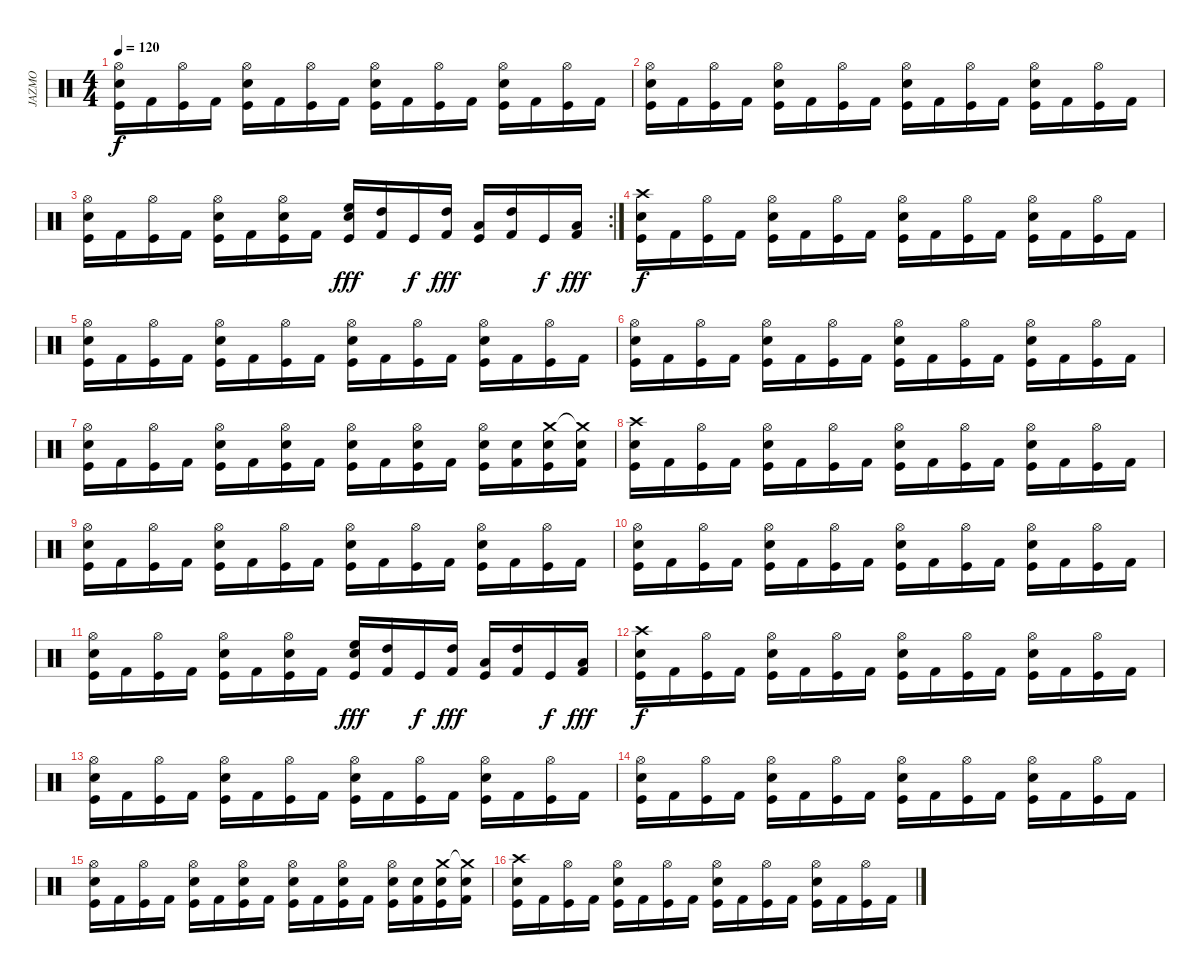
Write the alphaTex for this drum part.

\track ("JAZMO" "JAZMO") {instrument percussion}
\staff {score}
\articulation defaults
\ts (4 4)
\tempo 120
\clef neutral
\ks c
("Hi-Hat (open)" "Electric Snare (hit)" "Kick (hit)").16{dy f} "Kick (hit) 2".16 ("Hi-Hat (open)" "Kick (hit)").16 "Kick (hit) 2".16 ("Hi-Hat (open)" "Electric Snare (hit)" "Kick (hit)").16 "Kick (hit) 2".16 ("Hi-Hat (open)" "Kick (hit)").16 "Kick (hit) 2".16 ("Hi-Hat (open)" "Electric Snare (hit)" "Kick (hit)").16 "Kick (hit) 2".16 ("Hi-Hat (open)" "Kick (hit)").16 "Kick (hit) 2".16 ("Hi-Hat (open)" "Electric Snare (hit)" "Kick (hit)").16 "Kick (hit) 2".16 ("Hi-Hat (open)" "Kick (hit)").16 "Kick (hit) 2".16 |
("Hi-Hat (open)" "Electric Snare (hit)" "Kick (hit)").16 "Kick (hit) 2".16 ("Hi-Hat (open)" "Kick (hit)").16 "Kick (hit) 2".16 ("Hi-Hat (open)" "Electric Snare (hit)" "Kick (hit)").16 "Kick (hit) 2".16 ("Hi-Hat (open)" "Kick (hit)").16 "Kick (hit) 2".16 ("Hi-Hat (open)" "Electric Snare (hit)" "Kick (hit)").16 "Kick (hit) 2".16 ("Hi-Hat (open)" "Kick (hit)").16 "Kick (hit) 2".16 ("Hi-Hat (open)" "Electric Snare (hit)" "Kick (hit)").16 "Kick (hit) 2".16 ("Hi-Hat (open)" "Kick (hit)").16 "Kick (hit) 2".16 |
\rc 2
("Hi-Hat (open)" "Electric Snare (hit)" "Kick (hit)").16 "Kick (hit) 2".16 ("Hi-Hat (open)" "Kick (hit)").16 "Kick (hit) 2".16 ("Hi-Hat (open)" "Electric Snare (hit)" "Kick (hit)").16 "Kick (hit) 2".16 ("Hi-Hat (open)" "Electric Snare (hit)" "Kick (hit)").16 "Kick (hit) 2".16 ("High Floor Tom (hit)" "Electric Snare (hit)" "Kick (hit)").16{dy fff} ("High Tom (hit)" "Kick (hit) 2").16 "Kick (hit)".16{dy f} ("High Tom (hit)" "Kick (hit) 2").16{dy fff} ("Low Tom (hit)" "Kick (hit)").16 ("High Tom (hit)" "Kick (hit) 2").16 "Kick (hit)".16{dy f} ("Low Floor Tom (hit)" "Kick (hit) 2").16{dy fff} |
("Crash high (hit)" "Electric Snare (hit)" "Kick (hit)").16{dy f} "Kick (hit) 2".16 ("Hi-Hat (open)" "Kick (hit)").16 "Kick (hit) 2".16 ("Hi-Hat (open)" "Electric Snare (hit)" "Kick (hit)").16 "Kick (hit) 2".16 ("Hi-Hat (open)" "Kick (hit)").16 "Kick (hit) 2".16 ("Hi-Hat (open)" "Electric Snare (hit)" "Kick (hit)").16 "Kick (hit) 2".16 ("Hi-Hat (open)" "Kick (hit)").16 "Kick (hit) 2".16 ("Hi-Hat (open)" "Electric Snare (hit)" "Kick (hit)").16 "Kick (hit) 2".16 ("Hi-Hat (open)" "Kick (hit)").16 "Kick (hit) 2".16 |
("Hi-Hat (open)" "Electric Snare (hit)" "Kick (hit)").16 "Kick (hit) 2".16 ("Hi-Hat (open)" "Kick (hit)").16 "Kick (hit) 2".16 ("Hi-Hat (open)" "Electric Snare (hit)" "Kick (hit)").16 "Kick (hit) 2".16 ("Hi-Hat (open)" "Kick (hit)").16 "Kick (hit) 2".16 ("Hi-Hat (open)" "Electric Snare (hit)" "Kick (hit)").16 "Kick (hit) 2".16 ("Hi-Hat (open)" "Kick (hit)").16 "Kick (hit) 2".16 ("Hi-Hat (open)" "Electric Snare (hit)" "Kick (hit)").16 "Kick (hit) 2".16 ("Hi-Hat (open)" "Kick (hit)").16 "Kick (hit) 2".16 |
("Hi-Hat (open)" "Electric Snare (hit)" "Kick (hit)").16 "Kick (hit) 2".16 ("Hi-Hat (open)" "Kick (hit)").16 "Kick (hit) 2".16 ("Hi-Hat (open)" "Electric Snare (hit)" "Kick (hit)").16 "Kick (hit) 2".16 ("Hi-Hat (open)" "Kick (hit)").16 "Kick (hit) 2".16 ("Hi-Hat (open)" "Electric Snare (hit)" "Kick (hit)").16 "Kick (hit) 2".16 ("Hi-Hat (open)" "Kick (hit)").16 "Kick (hit) 2".16 ("Hi-Hat (open)" "Electric Snare (hit)" "Kick (hit)").16 "Kick (hit) 2".16 ("Hi-Hat (open)" "Kick (hit)").16 "Kick (hit) 2".16 |
("Hi-Hat (open)" "Electric Snare (hit)" "Kick (hit)").16 "Kick (hit) 2".16 ("Hi-Hat (open)" "Kick (hit)").16 "Kick (hit) 2".16 ("Hi-Hat (open)" "Electric Snare (hit)" "Kick (hit)").16 "Kick (hit) 2".16 ("Hi-Hat (open)" "Electric Snare (hit)" "Kick (hit)").16 "Kick (hit) 2".16 ("Hi-Hat (open)" "Electric Snare (hit)" "Kick (hit)").16 "Kick (hit) 2".16 ("Hi-Hat (open)" "Electric Snare (hit)" "Kick (hit)").16 "Kick (hit) 2".16 ("Hi-Hat (open)" "Electric Snare (hit)" "Kick (hit)").16 ("Electric Snare (hit)" "Kick (hit) 2").16 ("Crash medium (hit)" "Electric Snare (hit)" "Kick (hit)").16 ("Crash medium (hit)"{t} "Electric Snare (hit)" "Kick (hit) 2").16 |
("Crash high (hit)" "Electric Snare (hit)" "Kick (hit)").16 "Kick (hit) 2".16 ("Hi-Hat (open)" "Kick (hit)").16 "Kick (hit) 2".16 ("Hi-Hat (open)" "Electric Snare (hit)" "Kick (hit)").16 "Kick (hit) 2".16 ("Hi-Hat (open)" "Kick (hit)").16 "Kick (hit) 2".16 ("Hi-Hat (open)" "Electric Snare (hit)" "Kick (hit)").16 "Kick (hit) 2".16 ("Hi-Hat (open)" "Kick (hit)").16 "Kick (hit) 2".16 ("Hi-Hat (open)" "Electric Snare (hit)" "Kick (hit)").16 "Kick (hit) 2".16 ("Hi-Hat (open)" "Kick (hit)").16 "Kick (hit) 2".16 |
("Hi-Hat (open)" "Electric Snare (hit)" "Kick (hit)").16 "Kick (hit) 2".16 ("Hi-Hat (open)" "Kick (hit)").16 "Kick (hit) 2".16 ("Hi-Hat (open)" "Electric Snare (hit)" "Kick (hit)").16 "Kick (hit) 2".16 ("Hi-Hat (open)" "Kick (hit)").16 "Kick (hit) 2".16 ("Hi-Hat (open)" "Electric Snare (hit)" "Kick (hit)").16 "Kick (hit) 2".16 ("Hi-Hat (open)" "Kick (hit)").16 "Kick (hit) 2".16 ("Hi-Hat (open)" "Electric Snare (hit)" "Kick (hit)").16 "Kick (hit) 2".16 ("Hi-Hat (open)" "Kick (hit)").16 "Kick (hit) 2".16 |
("Hi-Hat (open)" "Electric Snare (hit)" "Kick (hit)").16 "Kick (hit) 2".16 ("Hi-Hat (open)" "Kick (hit)").16 "Kick (hit) 2".16 ("Hi-Hat (open)" "Electric Snare (hit)" "Kick (hit)").16 "Kick (hit) 2".16 ("Hi-Hat (open)" "Kick (hit)").16 "Kick (hit) 2".16 ("Hi-Hat (open)" "Electric Snare (hit)" "Kick (hit)").16 "Kick (hit) 2".16 ("Hi-Hat (open)" "Kick (hit)").16 "Kick (hit) 2".16 ("Hi-Hat (open)" "Electric Snare (hit)" "Kick (hit)").16 "Kick (hit) 2".16 ("Hi-Hat (open)" "Kick (hit)").16 "Kick (hit) 2".16 |
("Hi-Hat (open)" "Electric Snare (hit)" "Kick (hit)").16 "Kick (hit) 2".16 ("Hi-Hat (open)" "Kick (hit)").16 "Kick (hit) 2".16 ("Hi-Hat (open)" "Electric Snare (hit)" "Kick (hit)").16 "Kick (hit) 2".16 ("Hi-Hat (open)" "Electric Snare (hit)" "Kick (hit)").16 "Kick (hit) 2".16 ("High Floor Tom (hit)" "Electric Snare (hit)" "Kick (hit)").16{dy fff} ("High Tom (hit)" "Kick (hit) 2").16 "Kick (hit)".16{dy f} ("High Tom (hit)" "Kick (hit) 2").16{dy fff} ("Low Tom (hit)" "Kick (hit)").16 ("High Tom (hit)" "Kick (hit) 2").16 "Kick (hit)".16{dy f} ("Low Floor Tom (hit)" "Kick (hit) 2").16{dy fff} |
("Crash high (hit)" "Electric Snare (hit)" "Kick (hit)").16{dy f} "Kick (hit) 2".16 ("Hi-Hat (open)" "Kick (hit)").16 "Kick (hit) 2".16 ("Hi-Hat (open)" "Electric Snare (hit)" "Kick (hit)").16 "Kick (hit) 2".16 ("Hi-Hat (open)" "Kick (hit)").16 "Kick (hit) 2".16 ("Hi-Hat (open)" "Electric Snare (hit)" "Kick (hit)").16 "Kick (hit) 2".16 ("Hi-Hat (open)" "Kick (hit)").16 "Kick (hit) 2".16 ("Hi-Hat (open)" "Electric Snare (hit)" "Kick (hit)").16 "Kick (hit) 2".16 ("Hi-Hat (open)" "Kick (hit)").16 "Kick (hit) 2".16 |
("Hi-Hat (open)" "Electric Snare (hit)" "Kick (hit)").16 "Kick (hit) 2".16 ("Hi-Hat (open)" "Kick (hit)").16 "Kick (hit) 2".16 ("Hi-Hat (open)" "Electric Snare (hit)" "Kick (hit)").16 "Kick (hit) 2".16 ("Hi-Hat (open)" "Kick (hit)").16 "Kick (hit) 2".16 ("Hi-Hat (open)" "Electric Snare (hit)" "Kick (hit)").16 "Kick (hit) 2".16 ("Hi-Hat (open)" "Kick (hit)").16 "Kick (hit) 2".16 ("Hi-Hat (open)" "Electric Snare (hit)" "Kick (hit)").16 "Kick (hit) 2".16 ("Hi-Hat (open)" "Kick (hit)").16 "Kick (hit) 2".16 |
("Hi-Hat (open)" "Electric Snare (hit)" "Kick (hit)").16 "Kick (hit) 2".16 ("Hi-Hat (open)" "Kick (hit)").16 "Kick (hit) 2".16 ("Hi-Hat (open)" "Electric Snare (hit)" "Kick (hit)").16 "Kick (hit) 2".16 ("Hi-Hat (open)" "Kick (hit)").16 "Kick (hit) 2".16 ("Hi-Hat (open)" "Electric Snare (hit)" "Kick (hit)").16 "Kick (hit) 2".16 ("Hi-Hat (open)" "Kick (hit)").16 "Kick (hit) 2".16 ("Hi-Hat (open)" "Electric Snare (hit)" "Kick (hit)").16 "Kick (hit) 2".16 ("Hi-Hat (open)" "Kick (hit)").16 "Kick (hit) 2".16 |
("Hi-Hat (open)" "Electric Snare (hit)" "Kick (hit)").16 "Kick (hit) 2".16 ("Hi-Hat (open)" "Kick (hit)").16 "Kick (hit) 2".16 ("Hi-Hat (open)" "Electric Snare (hit)" "Kick (hit)").16 "Kick (hit) 2".16 ("Hi-Hat (open)" "Electric Snare (hit)" "Kick (hit)").16 "Kick (hit) 2".16 ("Hi-Hat (open)" "Electric Snare (hit)" "Kick (hit)").16 "Kick (hit) 2".16 ("Hi-Hat (open)" "Electric Snare (hit)" "Kick (hit)").16 "Kick (hit) 2".16 ("Hi-Hat (open)" "Electric Snare (hit)" "Kick (hit)").16 ("Electric Snare (hit)" "Kick (hit) 2").16 ("Crash medium (hit)" "Electric Snare (hit)" "Kick (hit)").16 ("Crash medium (hit)"{t} "Electric Snare (hit)" "Kick (hit) 2").16 |
("Crash high (hit)" "Electric Snare (hit)" "Kick (hit)").16 "Kick (hit) 2".16 ("Hi-Hat (open)" "Kick (hit)").16 "Kick (hit) 2".16 ("Hi-Hat (open)" "Electric Snare (hit)" "Kick (hit)").16 "Kick (hit) 2".16 ("Hi-Hat (open)" "Kick (hit)").16 "Kick (hit) 2".16 ("Hi-Hat (open)" "Electric Snare (hit)" "Kick (hit)").16 "Kick (hit) 2".16 ("Hi-Hat (open)" "Kick (hit)").16 "Kick (hit) 2".16 ("Hi-Hat (open)" "Electric Snare (hit)" "Kick (hit)").16 "Kick (hit) 2".16 ("Hi-Hat (open)" "Kick (hit)").16 "Kick (hit) 2".16
